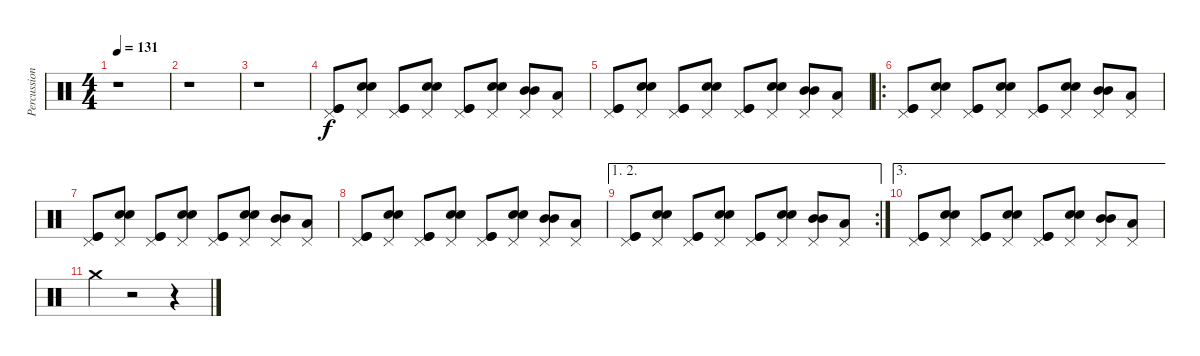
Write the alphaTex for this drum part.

\track ("Percussion" "Percussion") {instrument percussion}
\staff {score}
\articulation defaults
\ts (4 4)
\tempo 131
\clef neutral
\ks c
r.1{dy f} |
r.1 |
r.1 |
("Pedal Hi-Hat (hit)" "Kick (hit)" "Kick (hit)").8 ("Pedal Hi-Hat (hit)" "Electric Snare (hit)" "Electric Snare (hit)").8 ("Pedal Hi-Hat (hit)" "Kick (hit)" "Kick (hit)").8 ("Pedal Hi-Hat (hit)" "Electric Snare (hit)" "Electric Snare (hit)").8 ("Pedal Hi-Hat (hit)" "Kick (hit)" "Kick (hit)").8 ("Pedal Hi-Hat (hit)" "Electric Snare (hit)" "Electric Snare (hit)").8 ("Pedal Hi-Hat (hit)" "Mid Tom (hit)" "Mid Tom (hit)").8 ("Pedal Hi-Hat (hit)" "Low Tom (hit)").8 |
("Pedal Hi-Hat (hit)" "Kick (hit)" "Kick (hit)").8 ("Pedal Hi-Hat (hit)" "Electric Snare (hit)" "Electric Snare (hit)").8 ("Pedal Hi-Hat (hit)" "Kick (hit)" "Kick (hit)").8 ("Pedal Hi-Hat (hit)" "Electric Snare (hit)" "Electric Snare (hit)").8 ("Pedal Hi-Hat (hit)" "Kick (hit)" "Kick (hit)").8 ("Pedal Hi-Hat (hit)" "Electric Snare (hit)" "Electric Snare (hit)").8 ("Pedal Hi-Hat (hit)" "Mid Tom (hit)" "Mid Tom (hit)").8 ("Pedal Hi-Hat (hit)" "Low Tom (hit)").8 |
\ro
("Pedal Hi-Hat (hit)" "Kick (hit)" "Kick (hit)").8 ("Pedal Hi-Hat (hit)" "Electric Snare (hit)" "Electric Snare (hit)").8 ("Pedal Hi-Hat (hit)" "Kick (hit)" "Kick (hit)").8 ("Pedal Hi-Hat (hit)" "Electric Snare (hit)" "Electric Snare (hit)").8 ("Pedal Hi-Hat (hit)" "Kick (hit)" "Kick (hit)").8 ("Pedal Hi-Hat (hit)" "Electric Snare (hit)" "Electric Snare (hit)").8 ("Pedal Hi-Hat (hit)" "Mid Tom (hit)" "Mid Tom (hit)").8 ("Pedal Hi-Hat (hit)" "Low Tom (hit)").8 |
("Pedal Hi-Hat (hit)" "Kick (hit)" "Kick (hit)").8 ("Pedal Hi-Hat (hit)" "Electric Snare (hit)" "Electric Snare (hit)").8 ("Pedal Hi-Hat (hit)" "Kick (hit)" "Kick (hit)").8 ("Pedal Hi-Hat (hit)" "Electric Snare (hit)" "Electric Snare (hit)").8 ("Pedal Hi-Hat (hit)" "Kick (hit)" "Kick (hit)").8 ("Pedal Hi-Hat (hit)" "Electric Snare (hit)" "Electric Snare (hit)").8 ("Pedal Hi-Hat (hit)" "Mid Tom (hit)" "Mid Tom (hit)").8 ("Pedal Hi-Hat (hit)" "Low Tom (hit)").8 |
("Pedal Hi-Hat (hit)" "Kick (hit)" "Kick (hit)").8 ("Pedal Hi-Hat (hit)" "Electric Snare (hit)" "Electric Snare (hit)").8 ("Pedal Hi-Hat (hit)" "Kick (hit)" "Kick (hit)").8 ("Pedal Hi-Hat (hit)" "Electric Snare (hit)" "Electric Snare (hit)").8 ("Pedal Hi-Hat (hit)" "Kick (hit)" "Kick (hit)").8 ("Pedal Hi-Hat (hit)" "Electric Snare (hit)" "Electric Snare (hit)").8 ("Pedal Hi-Hat (hit)" "Mid Tom (hit)" "Mid Tom (hit)").8 ("Pedal Hi-Hat (hit)" "Low Tom (hit)").8 |
\ae (1 2)
\rc 2
("Pedal Hi-Hat (hit)" "Kick (hit)" "Kick (hit)").8 ("Pedal Hi-Hat (hit)" "Electric Snare (hit)" "Electric Snare (hit)").8 ("Pedal Hi-Hat (hit)" "Kick (hit)" "Kick (hit)").8 ("Pedal Hi-Hat (hit)" "Electric Snare (hit)" "Electric Snare (hit)").8 ("Pedal Hi-Hat (hit)" "Kick (hit)" "Kick (hit)").8 ("Pedal Hi-Hat (hit)" "Electric Snare (hit)" "Electric Snare (hit)").8 ("Pedal Hi-Hat (hit)" "Mid Tom (hit)" "Mid Tom (hit)").8 ("Pedal Hi-Hat (hit)" "Low Tom (hit)").8 |
\ae 3
("Pedal Hi-Hat (hit)" "Kick (hit)" "Kick (hit)").8 ("Pedal Hi-Hat (hit)" "Electric Snare (hit)" "Electric Snare (hit)").8 ("Pedal Hi-Hat (hit)" "Kick (hit)" "Kick (hit)").8 ("Pedal Hi-Hat (hit)" "Electric Snare (hit)" "Electric Snare (hit)").8 ("Pedal Hi-Hat (hit)" "Kick (hit)" "Kick (hit)").8 ("Pedal Hi-Hat (hit)" "Electric Snare (hit)" "Electric Snare (hit)").8 ("Pedal Hi-Hat (hit)" "Mid Tom (hit)" "Mid Tom (hit)").8 ("Pedal Hi-Hat (hit)" "Low Tom (hit)").8 |
"Crash medium (hit)".4 r.2 r.4
